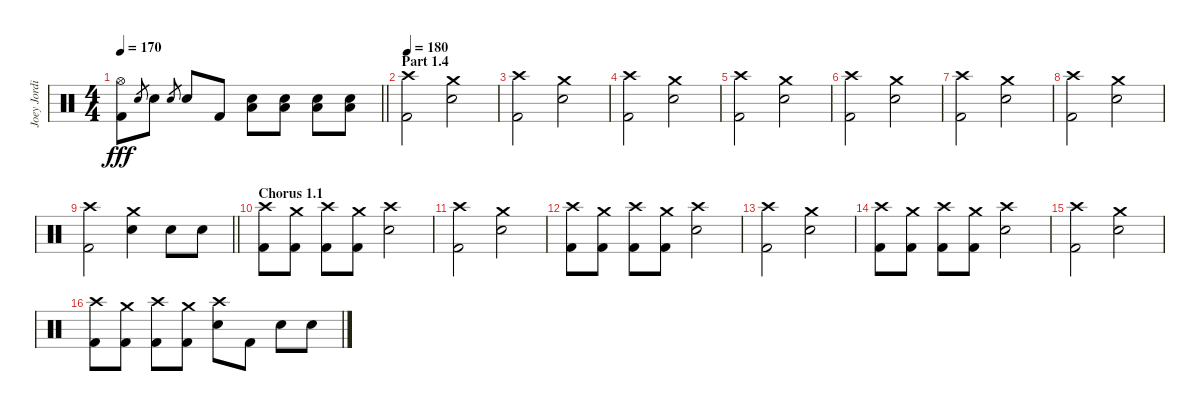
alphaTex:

\track ("Joey Jordison" "Joey Jordi") {instrument percussion}
\staff {score}
\articulation defaults
\ts (4 4)
\tempo 170
\clef neutral
\barLineRight lightlight
\ks c
("Hi-Hat (open)" "Kick (hit) 2").8{dy fff} "Electric Snare (hit)".8{gr} "Electric Snare (hit)".8 "Electric Snare (hit)".8{gr} "Electric Snare (hit)".8 "Kick (hit) 2".8 ("Electric Snare (hit)" "Low Floor Tom (hit)").8 ("Electric Snare (hit)" "Low Floor Tom (hit)").8 ("Electric Snare (hit)" "Low Floor Tom (hit)").8 ("Electric Snare (hit)" "Low Floor Tom (hit)").8 |
\section ("" "Part 1.4")
\tempo 180
("Crash high (hit)" "Kick (hit) 2").2 ("Crash medium (hit)" "Electric Snare (hit)").2 |
("Crash high (hit)" "Kick (hit) 2").2 ("Crash medium (hit)" "Electric Snare (hit)").2 |
("Crash high (hit)" "Kick (hit) 2").2 ("Crash medium (hit)" "Electric Snare (hit)").2 |
("Crash high (hit)" "Kick (hit) 2").2 ("Crash medium (hit)" "Electric Snare (hit)").2 |
("Crash high (hit)" "Kick (hit) 2").2 ("Crash medium (hit)" "Electric Snare (hit)").2 |
("Crash high (hit)" "Kick (hit) 2").2 ("Crash medium (hit)" "Electric Snare (hit)").2 |
("Crash high (hit)" "Kick (hit) 2").2 ("Crash medium (hit)" "Electric Snare (hit)").2 |
\barLineRight lightlight
("Crash high (hit)" "Kick (hit) 2").2 ("Crash medium (hit)" "Electric Snare (hit)").4 "Electric Snare (hit)".8 "Electric Snare (hit)".8 |
\section ("" "Chorus 1.1")
("Crash high (hit)" "Kick (hit) 2").8 ("Crash medium (hit)" "Kick (hit) 2").8 ("Crash high (hit)" "Kick (hit) 2").8 ("Crash medium (hit)" "Kick (hit) 2").8 ("Crash high (hit)" "Electric Snare (hit)").2 |
("Crash high (hit)" "Kick (hit) 2").2 ("Crash medium (hit)" "Electric Snare (hit)").2 |
("Crash high (hit)" "Kick (hit) 2").8 ("Crash medium (hit)" "Kick (hit) 2").8 ("Crash high (hit)" "Kick (hit) 2").8 ("Crash medium (hit)" "Kick (hit) 2").8 ("Crash high (hit)" "Electric Snare (hit)").2 |
("Crash high (hit)" "Kick (hit) 2").2 ("Crash medium (hit)" "Electric Snare (hit)").2 |
("Crash high (hit)" "Kick (hit) 2").8 ("Crash medium (hit)" "Kick (hit) 2").8 ("Crash high (hit)" "Kick (hit) 2").8 ("Crash medium (hit)" "Kick (hit) 2").8 ("Crash high (hit)" "Electric Snare (hit)").2 |
("Crash high (hit)" "Kick (hit) 2").2 ("Crash medium (hit)" "Electric Snare (hit)").2 |
("Crash high (hit)" "Kick (hit) 2").8 ("Crash medium (hit)" "Kick (hit) 2").8 ("Crash high (hit)" "Kick (hit) 2").8 ("Crash medium (hit)" "Kick (hit) 2").8 ("Crash high (hit)" "Electric Snare (hit)").8 "Kick (hit) 2".8 "Electric Snare (hit)".8 "Electric Snare (hit)".8
